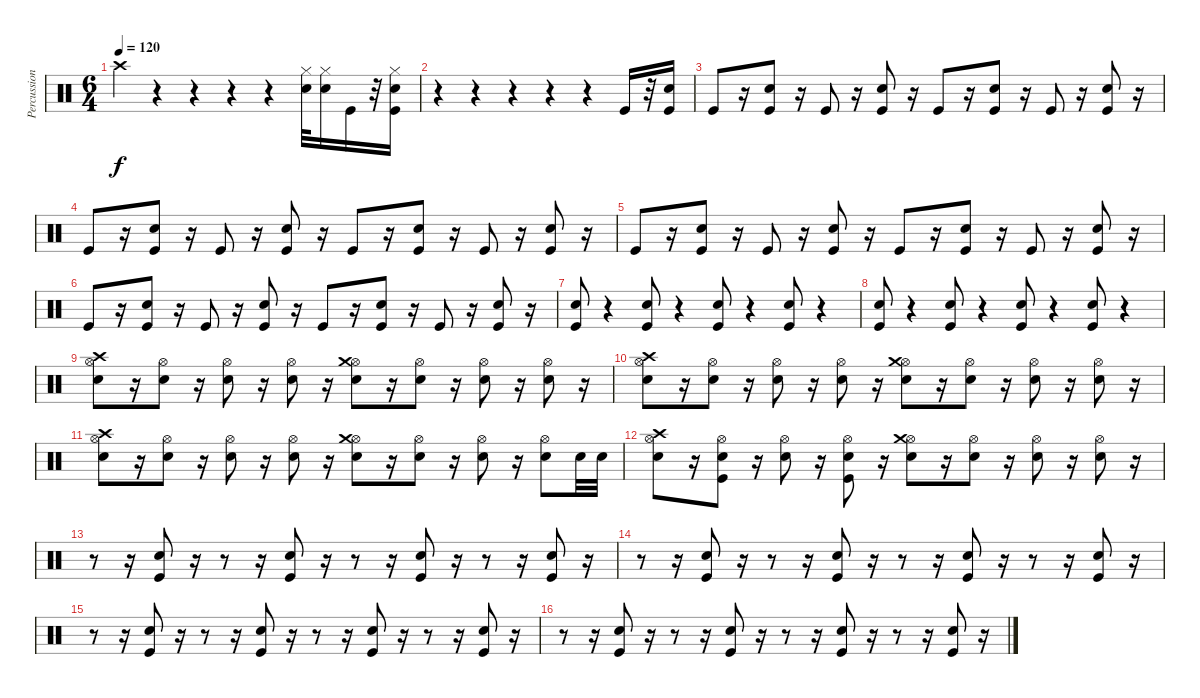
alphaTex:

\track ("Percussion" "Percussion") {instrument percussion}
\staff {score}
\articulation defaults
\ts (6 4)
\tempo 120
\clef neutral
\ks c "Crash high (hit)".4{dy f}
r.4 r.4 r.4 r.4 ("Snare (hit) 2" "Hi-Hat (closed)").32 ("Snare (hit) 2" "Hi-Hat (closed)").16 "Kick (hit)".16 r.32 ("Kick (hit)" "Snare (hit) 2" "Hi-Hat (closed)").16 |
r.4 r.4 r.4 r.4 r.4 "Kick (hit)".16 r.32 ("Snare (hit) 2" "Kick (hit)").16 |
"Kick (hit)".8 r.16 ("Snare (hit) 2" "Kick (hit)").8 r.16 "Kick (hit)".8 r.16 ("Snare (hit) 2" "Kick (hit)").8 r.16 "Kick (hit)".8 r.16 ("Snare (hit) 2" "Kick (hit)").8 r.16 "Kick (hit)".8 r.16 ("Snare (hit) 2" "Kick (hit)").8 r.16 |
"Kick (hit)".8 r.16 ("Snare (hit) 2" "Kick (hit)").8 r.16 "Kick (hit)".8 r.16 ("Snare (hit) 2" "Kick (hit)").8 r.16 "Kick (hit)".8 r.16 ("Snare (hit) 2" "Kick (hit)").8 r.16 "Kick (hit)".8 r.16 ("Snare (hit) 2" "Kick (hit)").8 r.16 |
"Kick (hit)".8 r.16 ("Snare (hit) 2" "Kick (hit)").8 r.16 "Kick (hit)".8 r.16 ("Snare (hit) 2" "Kick (hit)").8 r.16 "Kick (hit)".8 r.16 ("Snare (hit) 2" "Kick (hit)").8 r.16 "Kick (hit)".8 r.16 ("Snare (hit) 2" "Kick (hit)").8 r.16 |
"Kick (hit)".8 r.16 ("Snare (hit) 2" "Kick (hit)").8 r.16 "Kick (hit)".8 r.16 ("Snare (hit) 2" "Kick (hit)").8 r.16 "Kick (hit)".8 r.16 ("Snare (hit) 2" "Kick (hit)").8 r.16 "Kick (hit)".8 r.16 ("Snare (hit) 2" "Kick (hit)").8 r.16 |
("Snare (hit) 2" "Kick (hit)").8 r.4 ("Snare (hit) 2" "Kick (hit)").8 r.4 ("Snare (hit) 2" "Kick (hit)").8 r.4 ("Snare (hit) 2" "Kick (hit)").8 r.4 |
("Snare (hit) 2" "Kick (hit)").8 r.4 ("Snare (hit) 2" "Kick (hit)").8 r.4 ("Snare (hit) 2" "Kick (hit)").8 r.4 ("Snare (hit) 2" "Kick (hit)").8 r.4 |
("Hi-Hat (open)" "Crash high (hit)" "Snare (hit) 2").8 r.16 ("Hi-Hat (open)" "Snare (hit) 2").8 r.16 ("Hi-Hat (open)" "Snare (hit) 2").8 r.16 ("Hi-Hat (open)" "Snare (hit) 2").8 r.16 ("Hi-Hat (open)" "Crash medium (hit)" "Snare (hit) 2").8 r.16 ("Hi-Hat (open)" "Snare (hit) 2").8 r.16 ("Hi-Hat (open)" "Snare (hit) 2").8 r.16 ("Hi-Hat (open)" "Snare (hit) 2").8 r.16 |
("Hi-Hat (open)" "Crash high (hit)" "Snare (hit) 2").8 r.16 ("Hi-Hat (open)" "Snare (hit) 2").8 r.16 ("Hi-Hat (open)" "Snare (hit) 2").8 r.16 ("Hi-Hat (open)" "Snare (hit) 2").8 r.16 ("Hi-Hat (open)" "Crash medium (hit)" "Snare (hit) 2").8 r.16 ("Hi-Hat (open)" "Snare (hit) 2").8 r.16 ("Hi-Hat (open)" "Snare (hit) 2").8 r.16 ("Hi-Hat (open)" "Snare (hit) 2").8 r.16 |
("Hi-Hat (open)" "Crash high (hit)" "Snare (hit) 2").8 r.16 ("Hi-Hat (open)" "Snare (hit) 2").8 r.16 ("Hi-Hat (open)" "Snare (hit) 2").8 r.16 ("Hi-Hat (open)" "Snare (hit) 2").8 r.16 ("Hi-Hat (open)" "Crash medium (hit)" "Snare (hit) 2").8 r.16 ("Hi-Hat (open)" "Snare (hit) 2").8 r.16 ("Hi-Hat (open)" "Snare (hit) 2").8 r.16 ("Hi-Hat (open)" "Snare (hit) 2").8 "Snare (hit) 2".32 "Snare (hit) 2".32 |
("Hi-Hat (open)" "Crash high (hit)" "Snare (hit) 2").8 r.16 ("Hi-Hat (open)" "Snare (hit) 2" "Kick (hit)").8 r.16 ("Hi-Hat (open)" "Snare (hit) 2").8 r.16 ("Hi-Hat (open)" "Snare (hit) 2" "Kick (hit)").8 r.16 ("Hi-Hat (open)" "Crash medium (hit)" "Snare (hit) 2").8 r.16 ("Hi-Hat (open)" "Snare (hit) 2").8 r.16 ("Hi-Hat (open)" "Snare (hit) 2").8 r.16 ("Hi-Hat (open)" "Snare (hit) 2").8 r.16 |
r.8 r.16 ("Snare (hit) 2" "Kick (hit)").8 r.16 r.8 r.16 ("Snare (hit) 2" "Kick (hit)").8 r.16 r.8 r.16 ("Snare (hit) 2" "Kick (hit)").8 r.16 r.8 r.16 ("Snare (hit) 2" "Kick (hit)").8 r.16 |
r.8 r.16 ("Snare (hit) 2" "Kick (hit)").8 r.16 r.8 r.16 ("Snare (hit) 2" "Kick (hit)").8 r.16 r.8 r.16 ("Snare (hit) 2" "Kick (hit)").8 r.16 r.8 r.16 ("Snare (hit) 2" "Kick (hit)").8 r.16 |
r.8 r.16 ("Snare (hit) 2" "Kick (hit)").8 r.16 r.8 r.16 ("Snare (hit) 2" "Kick (hit)").8 r.16 r.8 r.16 ("Snare (hit) 2" "Kick (hit)").8 r.16 r.8 r.16 ("Snare (hit) 2" "Kick (hit)").8 r.16 |
r.8 r.16 ("Snare (hit) 2" "Kick (hit)").8 r.16 r.8 r.16 ("Snare (hit) 2" "Kick (hit)").8 r.16 r.8 r.16 ("Snare (hit) 2" "Kick (hit)").8 r.16 r.8 r.16 ("Snare (hit) 2" "Kick (hit)").8 r.16
